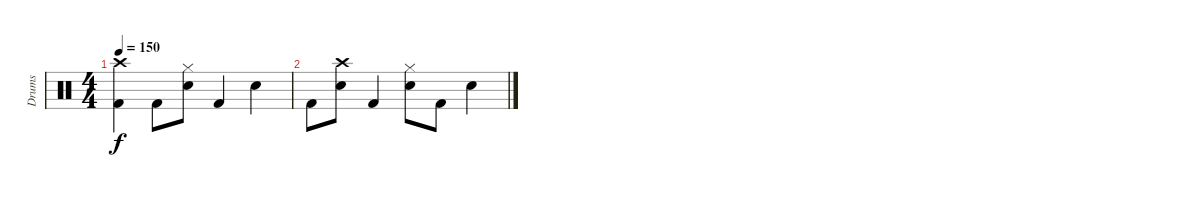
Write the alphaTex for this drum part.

\track ("Drums" "Drums") {instrument percussion}
\staff {score}
\articulation defaults
\ts (4 4)
\tempo 150
\clef neutral
\ks c
("Kick (hit) 2" "Crash high (hit)").4{dy f} "Kick (hit) 2".8 ("Electric Snare (hit)" "Hi-Hat (closed)").8 "Kick (hit) 2".4 "Electric Snare (hit)".4 |
"Kick (hit) 2".8 ("Electric Snare (hit)" "Crash high (hit)").8 "Kick (hit) 2".4 ("Electric Snare (hit)" "Hi-Hat (closed)").8 "Kick (hit) 2".8 "Electric Snare (hit)".4
